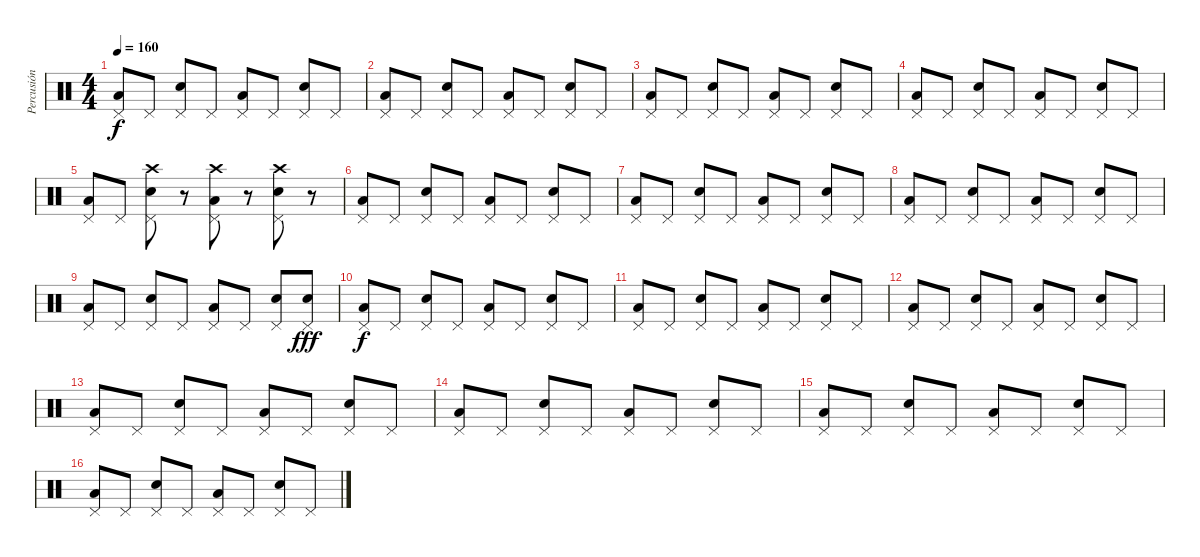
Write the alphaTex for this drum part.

\track ("Percusión" "Percusión") {instrument percussion}
\staff {score}
\articulation defaults
\ts (4 4)
\tempo 160
\clef neutral
\ks c
("Pedal Hi-Hat (hit)" "Low Floor Tom (hit)").8{dy f} "Pedal Hi-Hat (hit)".8 ("Pedal Hi-Hat (hit)" "Snare (hit) 2").8 "Pedal Hi-Hat (hit)".8 ("Pedal Hi-Hat (hit)" "Low Floor Tom (hit)").8 "Pedal Hi-Hat (hit)".8 ("Pedal Hi-Hat (hit)" "Snare (hit) 2").8 "Pedal Hi-Hat (hit)".8 |
("Pedal Hi-Hat (hit)" "Low Floor Tom (hit)").8 "Pedal Hi-Hat (hit)".8 ("Pedal Hi-Hat (hit)" "Snare (hit) 2").8 "Pedal Hi-Hat (hit)".8 ("Pedal Hi-Hat (hit)" "Low Floor Tom (hit)").8 "Pedal Hi-Hat (hit)".8 ("Pedal Hi-Hat (hit)" "Snare (hit) 2").8 "Pedal Hi-Hat (hit)".8 |
("Pedal Hi-Hat (hit)" "Low Floor Tom (hit)").8 "Pedal Hi-Hat (hit)".8 ("Pedal Hi-Hat (hit)" "Snare (hit) 2").8 "Pedal Hi-Hat (hit)".8 ("Pedal Hi-Hat (hit)" "Low Floor Tom (hit)").8 "Pedal Hi-Hat (hit)".8 ("Pedal Hi-Hat (hit)" "Snare (hit) 2").8 "Pedal Hi-Hat (hit)".8 |
("Pedal Hi-Hat (hit)" "Low Floor Tom (hit)").8 "Pedal Hi-Hat (hit)".8 ("Pedal Hi-Hat (hit)" "Snare (hit) 2").8 "Pedal Hi-Hat (hit)".8 ("Pedal Hi-Hat (hit)" "Low Floor Tom (hit)").8 "Pedal Hi-Hat (hit)".8 ("Pedal Hi-Hat (hit)" "Snare (hit) 2").8 "Pedal Hi-Hat (hit)".8 |
("Pedal Hi-Hat (hit)" "Low Floor Tom (hit)").8 "Pedal Hi-Hat (hit)".8 ("Pedal Hi-Hat (hit)" "Snare (hit) 2" "Crash high (hit)").8 r.8 ("Pedal Hi-Hat (hit)" "Low Floor Tom (hit)" "Crash high (hit)").8 r.8 ("Pedal Hi-Hat (hit)" "Snare (hit) 2" "Crash high (hit)").8 r.8 |
("Pedal Hi-Hat (hit)" "Low Floor Tom (hit)").8 "Pedal Hi-Hat (hit)".8 ("Pedal Hi-Hat (hit)" "Snare (hit) 2").8 "Pedal Hi-Hat (hit)".8 ("Pedal Hi-Hat (hit)" "Low Floor Tom (hit)").8 "Pedal Hi-Hat (hit)".8 ("Pedal Hi-Hat (hit)" "Snare (hit) 2").8 "Pedal Hi-Hat (hit)".8 |
("Pedal Hi-Hat (hit)" "Low Floor Tom (hit)").8 "Pedal Hi-Hat (hit)".8 ("Pedal Hi-Hat (hit)" "Snare (hit) 2").8 "Pedal Hi-Hat (hit)".8 ("Pedal Hi-Hat (hit)" "Low Floor Tom (hit)").8 "Pedal Hi-Hat (hit)".8 ("Pedal Hi-Hat (hit)" "Snare (hit) 2").8 "Pedal Hi-Hat (hit)".8 |
("Pedal Hi-Hat (hit)" "Low Floor Tom (hit)").8 "Pedal Hi-Hat (hit)".8 ("Pedal Hi-Hat (hit)" "Snare (hit) 2").8 "Pedal Hi-Hat (hit)".8 ("Pedal Hi-Hat (hit)" "Low Floor Tom (hit)").8 "Pedal Hi-Hat (hit)".8 ("Pedal Hi-Hat (hit)" "Snare (hit) 2").8 "Pedal Hi-Hat (hit)".8 |
("Pedal Hi-Hat (hit)" "Low Floor Tom (hit)").8 "Pedal Hi-Hat (hit)".8 ("Pedal Hi-Hat (hit)" "Snare (hit) 2").8 "Pedal Hi-Hat (hit)".8 ("Pedal Hi-Hat (hit)" "Low Floor Tom (hit)").8 "Pedal Hi-Hat (hit)".8 ("Pedal Hi-Hat (hit)" "Snare (hit) 2").8 ("Pedal Hi-Hat (hit)" "Snare (hit) 2").8{dy fff} |
("Pedal Hi-Hat (hit)" "Low Floor Tom (hit)").8{dy f} "Pedal Hi-Hat (hit)".8 ("Pedal Hi-Hat (hit)" "Snare (hit) 2").8 "Pedal Hi-Hat (hit)".8 ("Pedal Hi-Hat (hit)" "Low Floor Tom (hit)").8 "Pedal Hi-Hat (hit)".8 ("Pedal Hi-Hat (hit)" "Snare (hit) 2").8 "Pedal Hi-Hat (hit)".8 |
("Pedal Hi-Hat (hit)" "Low Floor Tom (hit)").8 "Pedal Hi-Hat (hit)".8 ("Pedal Hi-Hat (hit)" "Snare (hit) 2").8 "Pedal Hi-Hat (hit)".8 ("Pedal Hi-Hat (hit)" "Low Floor Tom (hit)").8 "Pedal Hi-Hat (hit)".8 ("Pedal Hi-Hat (hit)" "Snare (hit) 2").8 "Pedal Hi-Hat (hit)".8 |
("Pedal Hi-Hat (hit)" "Low Floor Tom (hit)").8 "Pedal Hi-Hat (hit)".8 ("Pedal Hi-Hat (hit)" "Snare (hit) 2").8 "Pedal Hi-Hat (hit)".8 ("Pedal Hi-Hat (hit)" "Low Floor Tom (hit)").8 "Pedal Hi-Hat (hit)".8 ("Pedal Hi-Hat (hit)" "Snare (hit) 2").8 "Pedal Hi-Hat (hit)".8 |
("Pedal Hi-Hat (hit)" "Low Floor Tom (hit)").8 "Pedal Hi-Hat (hit)".8 ("Pedal Hi-Hat (hit)" "Snare (hit) 2").8 "Pedal Hi-Hat (hit)".8 ("Pedal Hi-Hat (hit)" "Low Floor Tom (hit)").8 "Pedal Hi-Hat (hit)".8 ("Pedal Hi-Hat (hit)" "Snare (hit) 2").8 "Pedal Hi-Hat (hit)".8 |
("Pedal Hi-Hat (hit)" "Low Floor Tom (hit)").8 "Pedal Hi-Hat (hit)".8 ("Pedal Hi-Hat (hit)" "Snare (hit) 2").8 "Pedal Hi-Hat (hit)".8 ("Pedal Hi-Hat (hit)" "Low Floor Tom (hit)").8 "Pedal Hi-Hat (hit)".8 ("Pedal Hi-Hat (hit)" "Snare (hit) 2").8 "Pedal Hi-Hat (hit)".8 |
("Pedal Hi-Hat (hit)" "Low Floor Tom (hit)").8 "Pedal Hi-Hat (hit)".8 ("Pedal Hi-Hat (hit)" "Snare (hit) 2").8 "Pedal Hi-Hat (hit)".8 ("Pedal Hi-Hat (hit)" "Low Floor Tom (hit)").8 "Pedal Hi-Hat (hit)".8 ("Pedal Hi-Hat (hit)" "Snare (hit) 2").8 "Pedal Hi-Hat (hit)".8 |
("Pedal Hi-Hat (hit)" "Low Floor Tom (hit)").8 "Pedal Hi-Hat (hit)".8 ("Pedal Hi-Hat (hit)" "Snare (hit) 2").8 "Pedal Hi-Hat (hit)".8 ("Pedal Hi-Hat (hit)" "Low Floor Tom (hit)").8 "Pedal Hi-Hat (hit)".8 ("Pedal Hi-Hat (hit)" "Snare (hit) 2").8 "Pedal Hi-Hat (hit)".8
